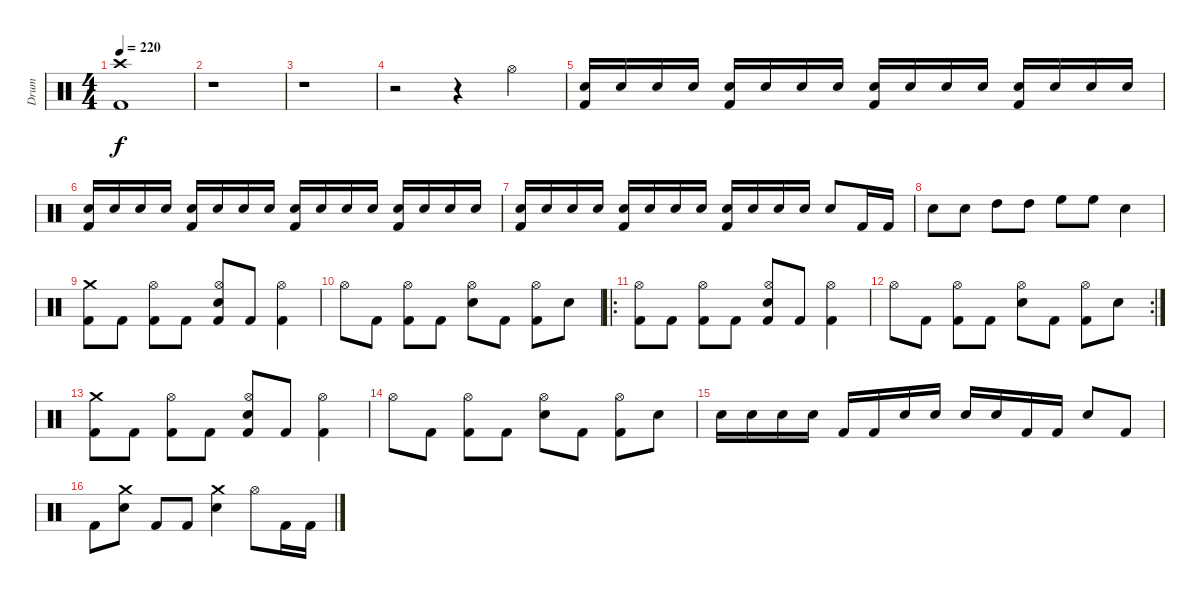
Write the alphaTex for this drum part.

\track ("Drum" "Drum") {instrument percussion}
\staff {score}
\articulation defaults
\ts (4 4)
\tempo 220
\clef neutral
\ks c
("Crash high (hit)" "Kick (hit) 2").1{dy f} |
r.1 |
r.1 |
r.2 r.4 "Hi-Hat (open)".4 |
("Electric Snare (hit)" "Kick (hit) 2").16 "Electric Snare (hit)".16 "Electric Snare (hit)".16 "Electric Snare (hit)".16 ("Electric Snare (hit)" "Kick (hit) 2").16 "Electric Snare (hit)".16 "Electric Snare (hit)".16 "Electric Snare (hit)".16 ("Electric Snare (hit)" "Kick (hit) 2").16 "Electric Snare (hit)".16 "Electric Snare (hit)".16 "Electric Snare (hit)".16 ("Electric Snare (hit)" "Kick (hit) 2").16 "Electric Snare (hit)".16 "Electric Snare (hit)".16 "Electric Snare (hit)".16 |
("Electric Snare (hit)" "Kick (hit) 2").16 "Electric Snare (hit)".16 "Electric Snare (hit)".16 "Electric Snare (hit)".16 ("Electric Snare (hit)" "Kick (hit) 2").16 "Electric Snare (hit)".16 "Electric Snare (hit)".16 "Electric Snare (hit)".16 ("Electric Snare (hit)" "Kick (hit) 2").16 "Electric Snare (hit)".16 "Electric Snare (hit)".16 "Electric Snare (hit)".16 ("Electric Snare (hit)" "Kick (hit) 2").16 "Electric Snare (hit)".16 "Electric Snare (hit)".16 "Electric Snare (hit)".16 |
("Electric Snare (hit)" "Kick (hit) 2").16 "Electric Snare (hit)".16 "Electric Snare (hit)".16 "Electric Snare (hit)".16 ("Electric Snare (hit)" "Kick (hit) 2").16 "Electric Snare (hit)".16 "Electric Snare (hit)".16 "Electric Snare (hit)".16 ("Electric Snare (hit)" "Kick (hit) 2").16 "Electric Snare (hit)".16 "Electric Snare (hit)".16 "Electric Snare (hit)".16 "Electric Snare (hit)".8 "Kick (hit) 2".16 "Kick (hit) 2".16 |
"Electric Snare (hit)".8 "Electric Snare (hit)".8 "High Tom (hit)".8 "High Tom (hit)".8 "High Floor Tom (hit)".8 "High Floor Tom (hit)".8 "Electric Snare (hit)".4 |
("Crash medium (hit)" "Kick (hit) 2").8 "Kick (hit) 2".8 ("Hi-Hat (open)" "Kick (hit) 2").8 "Kick (hit) 2".8 ("Hi-Hat (open)" "Electric Snare (hit)" "Kick (hit) 2").8 "Kick (hit) 2".8 ("Hi-Hat (open)" "Kick (hit) 2").4 |
"Hi-Hat (open)".8 "Kick (hit) 2".8 ("Hi-Hat (open)" "Kick (hit) 2").8 "Kick (hit) 2".8 ("Hi-Hat (open)" "Electric Snare (hit)").8 "Kick (hit) 2".8 ("Hi-Hat (open)" "Kick (hit) 2").8 "Electric Snare (hit)".8 |
\ro
("Hi-Hat (open)" "Kick (hit) 2").8 "Kick (hit) 2".8 ("Hi-Hat (open)" "Kick (hit) 2").8 "Kick (hit) 2".8 ("Hi-Hat (open)" "Electric Snare (hit)" "Kick (hit) 2").8 "Kick (hit) 2".8 ("Hi-Hat (open)" "Kick (hit) 2").4 |
\rc 2 "Hi-Hat (open)".8 "Kick (hit) 2".8
("Hi-Hat (open)" "Kick (hit) 2").8 "Kick (hit) 2".8 ("Hi-Hat (open)" "Electric Snare (hit)").8 "Kick (hit) 2".8 ("Hi-Hat (open)" "Kick (hit) 2").8 "Electric Snare (hit)".8 |
("Crash medium (hit)" "Kick (hit) 2").8 "Kick (hit) 2".8 ("Hi-Hat (open)" "Kick (hit) 2").8 "Kick (hit) 2".8 ("Hi-Hat (open)" "Electric Snare (hit)" "Kick (hit) 2").8 "Kick (hit) 2".8 ("Hi-Hat (open)" "Kick (hit) 2").4 |
"Hi-Hat (open)".8 "Kick (hit) 2".8 ("Hi-Hat (open)" "Kick (hit) 2").8 "Kick (hit) 2".8 ("Hi-Hat (open)" "Electric Snare (hit)").8 "Kick (hit) 2".8 ("Hi-Hat (open)" "Kick (hit) 2").8 "Electric Snare (hit)".8 |
"Electric Snare (hit)".16 "Electric Snare (hit)".16 "Electric Snare (hit)".16 "Electric Snare (hit)".16 "Kick (hit) 2".16 "Kick (hit) 2".16 "Electric Snare (hit)".16 "Electric Snare (hit)".16 "Electric Snare (hit)".16 "Electric Snare (hit)".16 "Kick (hit) 2".16 "Kick (hit) 2".16 "Electric Snare (hit)".8 "Kick (hit) 2".8 |
"Kick (hit) 2".8 ("Crash medium (hit)" "Electric Snare (hit)").8 "Kick (hit) 2".8 "Kick (hit) 2".8 ("Crash medium (hit)" "Electric Snare (hit)").4 "Hi-Hat (open)".8 "Kick (hit) 2".16 "Kick (hit) 2".16
